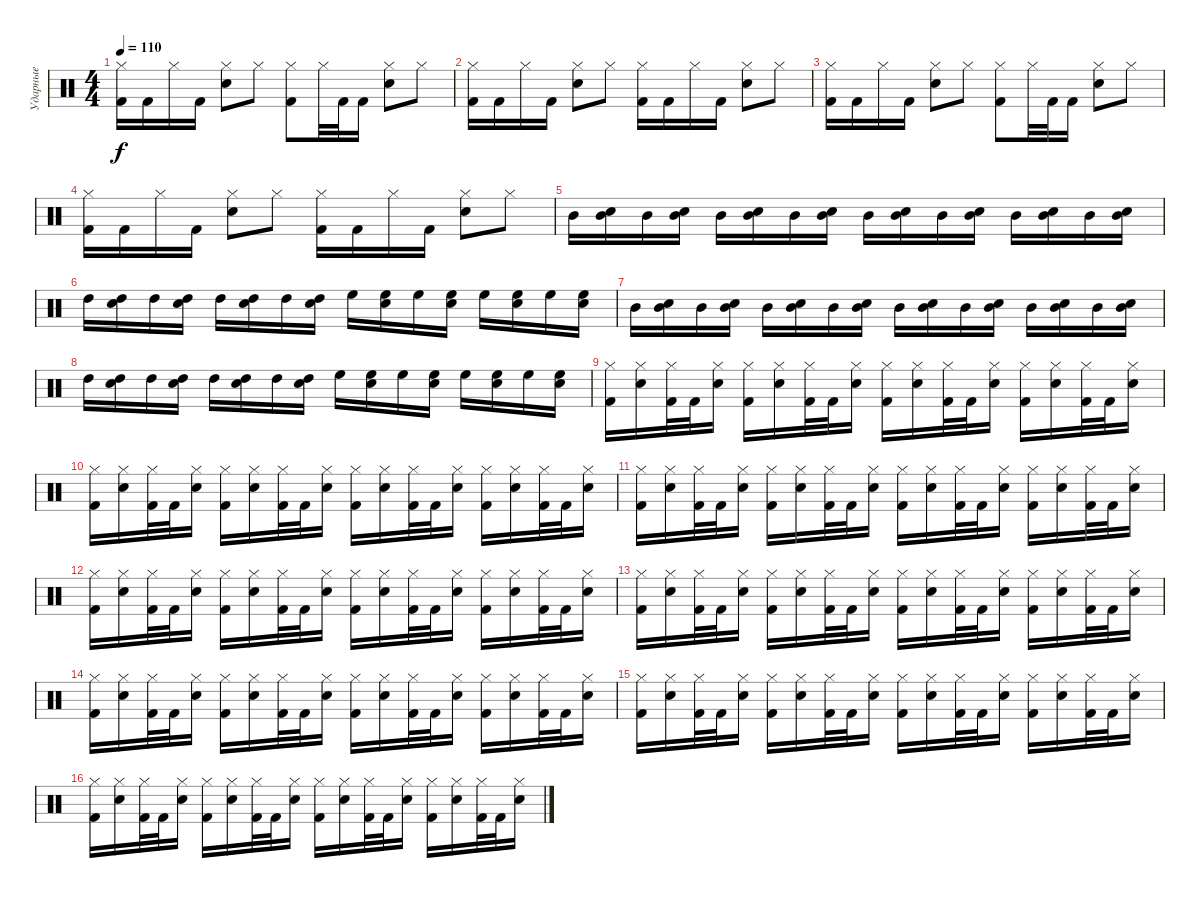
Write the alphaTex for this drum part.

\track ("Ударные" "Ударные") {instrument percussion}
\staff {score}
\articulation defaults
\ts (4 4)
\tempo 110
\clef neutral
\ks c
("Hi-Hat (closed)" "Kick (hit) 2").16{dy f} "Kick (hit) 2".16 "Hi-Hat (closed)".16 "Kick (hit) 2".16 ("Hi-Hat (closed)" "Electric Snare (hit)").8 "Hi-Hat (closed)".8 ("Hi-Hat (closed)" "Kick (hit) 2").8 "Hi-Hat (closed)".32 "Kick (hit) 2".32 "Kick (hit) 2".16 ("Hi-Hat (closed)" "Electric Snare (hit)").8 "Hi-Hat (closed)".8 |
("Hi-Hat (closed)" "Kick (hit) 2").16 "Kick (hit) 2".16 "Hi-Hat (closed)".16 "Kick (hit) 2".16 ("Hi-Hat (closed)" "Electric Snare (hit)").8 "Hi-Hat (closed)".8 ("Hi-Hat (closed)" "Kick (hit) 2").16 "Kick (hit) 2".16 "Hi-Hat (closed)".16 "Kick (hit) 2".16 ("Hi-Hat (closed)" "Electric Snare (hit)").8 "Hi-Hat (closed)".8 |
("Hi-Hat (closed)" "Kick (hit) 2").16 "Kick (hit) 2".16 "Hi-Hat (closed)".16 "Kick (hit) 2".16 ("Hi-Hat (closed)" "Electric Snare (hit)").8 "Hi-Hat (closed)".8 ("Hi-Hat (closed)" "Kick (hit) 2").8 "Hi-Hat (closed)".32 "Kick (hit) 2".32 "Kick (hit) 2".16 ("Hi-Hat (closed)" "Electric Snare (hit)").8 "Hi-Hat (closed)".8 |
("Hi-Hat (closed)" "Kick (hit) 2").16 "Kick (hit) 2".16 "Hi-Hat (closed)".16 "Kick (hit) 2".16 ("Hi-Hat (closed)" "Electric Snare (hit)").8 "Hi-Hat (closed)".8 ("Hi-Hat (closed)" "Kick (hit) 2").16 "Kick (hit) 2".16 "Hi-Hat (closed)".16 "Kick (hit) 2".16 ("Hi-Hat (closed)" "Electric Snare (hit)").8 "Hi-Hat (closed)".8 |
"Mid Tom (hit)".16 ("Mid Tom (hit)" "Electric Snare (hit)").16 "Mid Tom (hit)".16 ("Mid Tom (hit)" "Electric Snare (hit)").16 "Mid Tom (hit)".16 ("Mid Tom (hit)" "Electric Snare (hit)").16 "Mid Tom (hit)".16 ("Mid Tom (hit)" "Electric Snare (hit)").16 "Mid Tom (hit)".16 ("Mid Tom (hit)" "Electric Snare (hit)").16 "Mid Tom (hit)".16 ("Mid Tom (hit)" "Electric Snare (hit)").16 "Mid Tom (hit)".16 ("Mid Tom (hit)" "Electric Snare (hit)").16 "Mid Tom (hit)".16 ("Mid Tom (hit)" "Electric Snare (hit)").16 |
"High Tom (hit)".16 ("High Tom (hit)" "Electric Snare (hit)").16 "High Tom (hit)".16 ("High Tom (hit)" "Electric Snare (hit)").16 "High Tom (hit)".16 ("High Tom (hit)" "Electric Snare (hit)").16 "High Tom (hit)".16 ("High Tom (hit)" "Electric Snare (hit)").16 "High Floor Tom (hit)".16 ("High Floor Tom (hit)" "Electric Snare (hit)").16 "High Floor Tom (hit)".16 ("High Floor Tom (hit)" "Electric Snare (hit)").16 "High Floor Tom (hit)".16 ("High Floor Tom (hit)" "Electric Snare (hit)").16 "High Floor Tom (hit)".16 ("High Floor Tom (hit)" "Electric Snare (hit)").16 |
"Mid Tom (hit)".16 ("Mid Tom (hit)" "Electric Snare (hit)").16 "Mid Tom (hit)".16 ("Mid Tom (hit)" "Electric Snare (hit)").16 "Mid Tom (hit)".16 ("Mid Tom (hit)" "Electric Snare (hit)").16 "Mid Tom (hit)".16 ("Mid Tom (hit)" "Electric Snare (hit)").16 "Mid Tom (hit)".16 ("Mid Tom (hit)" "Electric Snare (hit)").16 "Mid Tom (hit)".16 ("Mid Tom (hit)" "Electric Snare (hit)").16 "Mid Tom (hit)".16 ("Mid Tom (hit)" "Electric Snare (hit)").16 "Mid Tom (hit)".16 ("Mid Tom (hit)" "Electric Snare (hit)").16 |
"High Tom (hit)".16 ("High Tom (hit)" "Electric Snare (hit)").16 "High Tom (hit)".16 ("High Tom (hit)" "Electric Snare (hit)").16 "High Tom (hit)".16 ("High Tom (hit)" "Electric Snare (hit)").16 "High Tom (hit)".16 ("High Tom (hit)" "Electric Snare (hit)").16 "High Floor Tom (hit)".16 ("High Floor Tom (hit)" "Electric Snare (hit)").16 "High Floor Tom (hit)".16 ("High Floor Tom (hit)" "Electric Snare (hit)").16 "High Floor Tom (hit)".16 ("High Floor Tom (hit)" "Electric Snare (hit)").16 "High Floor Tom (hit)".16 ("High Floor Tom (hit)" "Electric Snare (hit)").16 |
("Hi-Hat (closed)" "Kick (hit) 2").16 ("Hi-Hat (closed)" "Electric Snare (hit)").16 ("Hi-Hat (closed)" "Kick (hit) 2").32 "Kick (hit) 2".32 ("Hi-Hat (closed)" "Electric Snare (hit)").16 ("Hi-Hat (closed)" "Kick (hit) 2").16 ("Hi-Hat (closed)" "Electric Snare (hit)").16 ("Hi-Hat (closed)" "Kick (hit) 2").32 "Kick (hit) 2".32 ("Hi-Hat (closed)" "Electric Snare (hit)").16 ("Hi-Hat (closed)" "Kick (hit) 2").16 ("Hi-Hat (closed)" "Electric Snare (hit)").16 ("Hi-Hat (closed)" "Kick (hit) 2").32 "Kick (hit) 2".32 ("Hi-Hat (closed)" "Electric Snare (hit)").16 ("Hi-Hat (closed)" "Kick (hit) 2").16 ("Hi-Hat (closed)" "Electric Snare (hit)").16 ("Hi-Hat (closed)" "Kick (hit) 2").32 "Kick (hit) 2".32 ("Hi-Hat (closed)" "Electric Snare (hit)").16 |
("Hi-Hat (closed)" "Kick (hit) 2").16 ("Hi-Hat (closed)" "Electric Snare (hit)").16 ("Hi-Hat (closed)" "Kick (hit) 2").32 "Kick (hit) 2".32 ("Hi-Hat (closed)" "Electric Snare (hit)").16 ("Hi-Hat (closed)" "Kick (hit) 2").16 ("Hi-Hat (closed)" "Electric Snare (hit)").16 ("Hi-Hat (closed)" "Kick (hit) 2").32 "Kick (hit) 2".32 ("Hi-Hat (closed)" "Electric Snare (hit)").16 ("Hi-Hat (closed)" "Kick (hit) 2").16 ("Hi-Hat (closed)" "Electric Snare (hit)").16 ("Hi-Hat (closed)" "Kick (hit) 2").32 "Kick (hit) 2".32 ("Hi-Hat (closed)" "Electric Snare (hit)").16 ("Hi-Hat (closed)" "Kick (hit) 2").16 ("Hi-Hat (closed)" "Electric Snare (hit)").16 ("Hi-Hat (closed)" "Kick (hit) 2").32 "Kick (hit) 2".32 ("Hi-Hat (closed)" "Electric Snare (hit)").16 |
("Hi-Hat (closed)" "Kick (hit) 2").16 ("Hi-Hat (closed)" "Electric Snare (hit)").16 ("Hi-Hat (closed)" "Kick (hit) 2").32 "Kick (hit) 2".32 ("Hi-Hat (closed)" "Electric Snare (hit)").16 ("Hi-Hat (closed)" "Kick (hit) 2").16 ("Hi-Hat (closed)" "Electric Snare (hit)").16 ("Hi-Hat (closed)" "Kick (hit) 2").32 "Kick (hit) 2".32 ("Hi-Hat (closed)" "Electric Snare (hit)").16 ("Hi-Hat (closed)" "Kick (hit) 2").16 ("Hi-Hat (closed)" "Electric Snare (hit)").16 ("Hi-Hat (closed)" "Kick (hit) 2").32 "Kick (hit) 2".32 ("Hi-Hat (closed)" "Electric Snare (hit)").16 ("Hi-Hat (closed)" "Kick (hit) 2").16 ("Hi-Hat (closed)" "Electric Snare (hit)").16 ("Hi-Hat (closed)" "Kick (hit) 2").32 "Kick (hit) 2".32 ("Hi-Hat (closed)" "Electric Snare (hit)").16 |
("Hi-Hat (closed)" "Kick (hit) 2").16 ("Hi-Hat (closed)" "Electric Snare (hit)").16 ("Hi-Hat (closed)" "Kick (hit) 2").32 "Kick (hit) 2".32 ("Hi-Hat (closed)" "Electric Snare (hit)").16 ("Hi-Hat (closed)" "Kick (hit) 2").16 ("Hi-Hat (closed)" "Electric Snare (hit)").16 ("Hi-Hat (closed)" "Kick (hit) 2").32 "Kick (hit) 2".32 ("Hi-Hat (closed)" "Electric Snare (hit)").16 ("Hi-Hat (closed)" "Kick (hit) 2").16 ("Hi-Hat (closed)" "Electric Snare (hit)").16 ("Hi-Hat (closed)" "Kick (hit) 2").32 "Kick (hit) 2".32 ("Hi-Hat (closed)" "Electric Snare (hit)").16 ("Hi-Hat (closed)" "Kick (hit) 2").16 ("Hi-Hat (closed)" "Electric Snare (hit)").16 ("Hi-Hat (closed)" "Kick (hit) 2").32 "Kick (hit) 2".32 ("Hi-Hat (closed)" "Electric Snare (hit)").16 |
("Hi-Hat (closed)" "Kick (hit) 2").16 ("Hi-Hat (closed)" "Electric Snare (hit)").16 ("Hi-Hat (closed)" "Kick (hit) 2").32 "Kick (hit) 2".32 ("Hi-Hat (closed)" "Electric Snare (hit)").16 ("Hi-Hat (closed)" "Kick (hit) 2").16 ("Hi-Hat (closed)" "Electric Snare (hit)").16 ("Hi-Hat (closed)" "Kick (hit) 2").32 "Kick (hit) 2".32 ("Hi-Hat (closed)" "Electric Snare (hit)").16 ("Hi-Hat (closed)" "Kick (hit) 2").16 ("Hi-Hat (closed)" "Electric Snare (hit)").16 ("Hi-Hat (closed)" "Kick (hit) 2").32 "Kick (hit) 2".32 ("Hi-Hat (closed)" "Electric Snare (hit)").16 ("Hi-Hat (closed)" "Kick (hit) 2").16 ("Hi-Hat (closed)" "Electric Snare (hit)").16 ("Hi-Hat (closed)" "Kick (hit) 2").32 "Kick (hit) 2".32 ("Hi-Hat (closed)" "Electric Snare (hit)").16 |
("Hi-Hat (closed)" "Kick (hit) 2").16 ("Hi-Hat (closed)" "Electric Snare (hit)").16 ("Hi-Hat (closed)" "Kick (hit) 2").32 "Kick (hit) 2".32 ("Hi-Hat (closed)" "Electric Snare (hit)").16 ("Hi-Hat (closed)" "Kick (hit) 2").16 ("Hi-Hat (closed)" "Electric Snare (hit)").16 ("Hi-Hat (closed)" "Kick (hit) 2").32 "Kick (hit) 2".32 ("Hi-Hat (closed)" "Electric Snare (hit)").16 ("Hi-Hat (closed)" "Kick (hit) 2").16 ("Hi-Hat (closed)" "Electric Snare (hit)").16 ("Hi-Hat (closed)" "Kick (hit) 2").32 "Kick (hit) 2".32 ("Hi-Hat (closed)" "Electric Snare (hit)").16 ("Hi-Hat (closed)" "Kick (hit) 2").16 ("Hi-Hat (closed)" "Electric Snare (hit)").16 ("Hi-Hat (closed)" "Kick (hit) 2").32 "Kick (hit) 2".32 ("Hi-Hat (closed)" "Electric Snare (hit)").16 |
("Hi-Hat (closed)" "Kick (hit) 2").16 ("Hi-Hat (closed)" "Electric Snare (hit)").16 ("Hi-Hat (closed)" "Kick (hit) 2").32 "Kick (hit) 2".32 ("Hi-Hat (closed)" "Electric Snare (hit)").16 ("Hi-Hat (closed)" "Kick (hit) 2").16 ("Hi-Hat (closed)" "Electric Snare (hit)").16 ("Hi-Hat (closed)" "Kick (hit) 2").32 "Kick (hit) 2".32 ("Hi-Hat (closed)" "Electric Snare (hit)").16 ("Hi-Hat (closed)" "Kick (hit) 2").16 ("Hi-Hat (closed)" "Electric Snare (hit)").16 ("Hi-Hat (closed)" "Kick (hit) 2").32 "Kick (hit) 2".32 ("Hi-Hat (closed)" "Electric Snare (hit)").16 ("Hi-Hat (closed)" "Kick (hit) 2").16 ("Hi-Hat (closed)" "Electric Snare (hit)").16 ("Hi-Hat (closed)" "Kick (hit) 2").32 "Kick (hit) 2".32 ("Hi-Hat (closed)" "Electric Snare (hit)").16 |
("Hi-Hat (closed)" "Kick (hit) 2").16 ("Hi-Hat (closed)" "Electric Snare (hit)").16 ("Hi-Hat (closed)" "Kick (hit) 2").32 "Kick (hit) 2".32 ("Hi-Hat (closed)" "Electric Snare (hit)").16 ("Hi-Hat (closed)" "Kick (hit) 2").16 ("Hi-Hat (closed)" "Electric Snare (hit)").16 ("Hi-Hat (closed)" "Kick (hit) 2").32 "Kick (hit) 2".32 ("Hi-Hat (closed)" "Electric Snare (hit)").16 ("Hi-Hat (closed)" "Kick (hit) 2").16 ("Hi-Hat (closed)" "Electric Snare (hit)").16 ("Hi-Hat (closed)" "Kick (hit) 2").32 "Kick (hit) 2".32 ("Hi-Hat (closed)" "Electric Snare (hit)").16 ("Hi-Hat (closed)" "Kick (hit) 2").16 ("Hi-Hat (closed)" "Electric Snare (hit)").16 ("Hi-Hat (closed)" "Kick (hit) 2").32 "Kick (hit) 2".32 ("Hi-Hat (closed)" "Electric Snare (hit)").16
